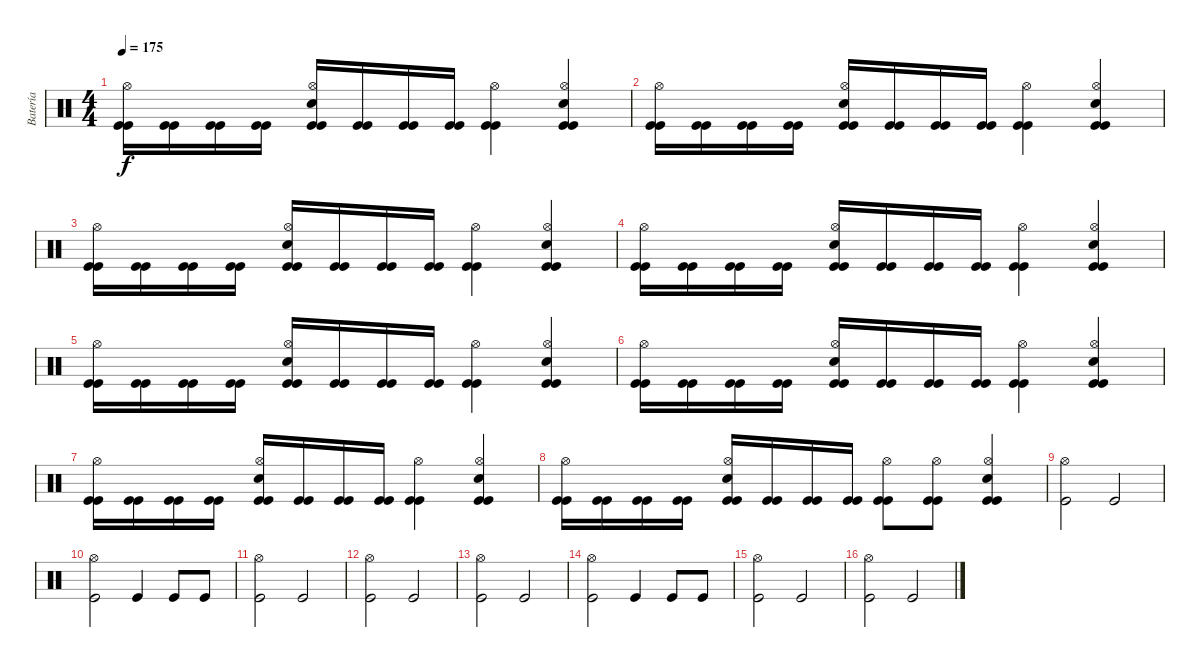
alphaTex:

\track ("Batería" "Batería") {instrument percussion}
\staff {score}
\articulation defaults
\ts (4 4)
\tempo 175
\clef neutral
\ks c
("Kick (hit)" "Kick (hit)" "Hi-Hat (open)").16{dy f} ("Kick (hit)" "Kick (hit)").16 ("Kick (hit)" "Kick (hit)").16 ("Kick (hit)" "Kick (hit)").16 ("Kick (hit)" "Kick (hit)" "Snare (hit) 2" "Hi-Hat (open)").16 ("Kick (hit)" "Kick (hit)").16 ("Kick (hit)" "Kick (hit)").16 ("Kick (hit)" "Kick (hit)").16 ("Kick (hit)" "Kick (hit)" "Hi-Hat (open)").4 ("Kick (hit)" "Kick (hit)" "Snare (hit) 2" "Hi-Hat (open)").4 |
("Kick (hit)" "Kick (hit)" "Hi-Hat (open)").16 ("Kick (hit)" "Kick (hit)").16 ("Kick (hit)" "Kick (hit)").16 ("Kick (hit)" "Kick (hit)").16 ("Kick (hit)" "Kick (hit)" "Snare (hit) 2" "Hi-Hat (open)").16 ("Kick (hit)" "Kick (hit)").16 ("Kick (hit)" "Kick (hit)").16 ("Kick (hit)" "Kick (hit)").16 ("Kick (hit)" "Kick (hit)" "Hi-Hat (open)").4 ("Kick (hit)" "Kick (hit)" "Snare (hit) 2" "Hi-Hat (open)").4 |
("Kick (hit)" "Kick (hit)" "Hi-Hat (open)").16 ("Kick (hit)" "Kick (hit)").16 ("Kick (hit)" "Kick (hit)").16 ("Kick (hit)" "Kick (hit)").16 ("Kick (hit)" "Kick (hit)" "Snare (hit) 2" "Hi-Hat (open)").16 ("Kick (hit)" "Kick (hit)").16 ("Kick (hit)" "Kick (hit)").16 ("Kick (hit)" "Kick (hit)").16 ("Kick (hit)" "Kick (hit)" "Hi-Hat (open)").4 ("Kick (hit)" "Kick (hit)" "Snare (hit) 2" "Hi-Hat (open)").4 |
("Kick (hit)" "Kick (hit)" "Hi-Hat (open)").16 ("Kick (hit)" "Kick (hit)").16 ("Kick (hit)" "Kick (hit)").16 ("Kick (hit)" "Kick (hit)").16 ("Kick (hit)" "Kick (hit)" "Snare (hit) 2" "Hi-Hat (open)").16 ("Kick (hit)" "Kick (hit)").16 ("Kick (hit)" "Kick (hit)").16 ("Kick (hit)" "Kick (hit)").16 ("Kick (hit)" "Kick (hit)" "Hi-Hat (open)").4 ("Kick (hit)" "Kick (hit)" "Snare (hit) 2" "Hi-Hat (open)").4 |
("Kick (hit)" "Kick (hit)" "Hi-Hat (open)").16 ("Kick (hit)" "Kick (hit)").16 ("Kick (hit)" "Kick (hit)").16 ("Kick (hit)" "Kick (hit)").16 ("Kick (hit)" "Kick (hit)" "Snare (hit) 2" "Hi-Hat (open)").16 ("Kick (hit)" "Kick (hit)").16 ("Kick (hit)" "Kick (hit)").16 ("Kick (hit)" "Kick (hit)").16 ("Kick (hit)" "Kick (hit)" "Hi-Hat (open)").4 ("Kick (hit)" "Kick (hit)" "Snare (hit) 2" "Hi-Hat (open)").4 |
("Kick (hit)" "Kick (hit)" "Hi-Hat (open)").16 ("Kick (hit)" "Kick (hit)").16 ("Kick (hit)" "Kick (hit)").16 ("Kick (hit)" "Kick (hit)").16 ("Kick (hit)" "Kick (hit)" "Snare (hit) 2" "Hi-Hat (open)").16 ("Kick (hit)" "Kick (hit)").16 ("Kick (hit)" "Kick (hit)").16 ("Kick (hit)" "Kick (hit)").16 ("Kick (hit)" "Kick (hit)" "Hi-Hat (open)").4 ("Kick (hit)" "Kick (hit)" "Snare (hit) 2" "Hi-Hat (open)").4 |
("Kick (hit)" "Kick (hit)" "Hi-Hat (open)").16 ("Kick (hit)" "Kick (hit)").16 ("Kick (hit)" "Kick (hit)").16 ("Kick (hit)" "Kick (hit)").16 ("Kick (hit)" "Kick (hit)" "Snare (hit) 2" "Hi-Hat (open)").16 ("Kick (hit)" "Kick (hit)").16 ("Kick (hit)" "Kick (hit)").16 ("Kick (hit)" "Kick (hit)").16 ("Kick (hit)" "Kick (hit)" "Hi-Hat (open)").4 ("Kick (hit)" "Kick (hit)" "Snare (hit) 2" "Hi-Hat (open)").4 |
("Kick (hit)" "Kick (hit)" "Hi-Hat (open)").16 ("Kick (hit)" "Kick (hit)").16 ("Kick (hit)" "Kick (hit)").16 ("Kick (hit)" "Kick (hit)").16 ("Kick (hit)" "Kick (hit)" "Snare (hit) 2" "Hi-Hat (open)").16 ("Kick (hit)" "Kick (hit)").16 ("Kick (hit)" "Kick (hit)").16 ("Kick (hit)" "Kick (hit)").16 ("Kick (hit)" "Kick (hit)" "Hi-Hat (open)").8 ("Kick (hit)" "Kick (hit)" "Hi-Hat (open)").8 ("Kick (hit)" "Kick (hit)" "Snare (hit) 2" "Hi-Hat (open)").4 |
("Kick (hit)" "Hi-Hat (open)").2 "Kick (hit)".2 |
("Kick (hit)" "Hi-Hat (open)").2 "Kick (hit)".4 "Kick (hit)".8 "Kick (hit)".8 |
("Kick (hit)" "Hi-Hat (open)").2 "Kick (hit)".2 |
("Kick (hit)" "Hi-Hat (open)").2 "Kick (hit)".2 |
("Kick (hit)" "Hi-Hat (open)").2 "Kick (hit)".2 |
("Kick (hit)" "Hi-Hat (open)").2 "Kick (hit)".4 "Kick (hit)".8 "Kick (hit)".8 |
("Kick (hit)" "Hi-Hat (open)").2 "Kick (hit)".2 |
("Kick (hit)" "Hi-Hat (open)").2 "Kick (hit)".2
